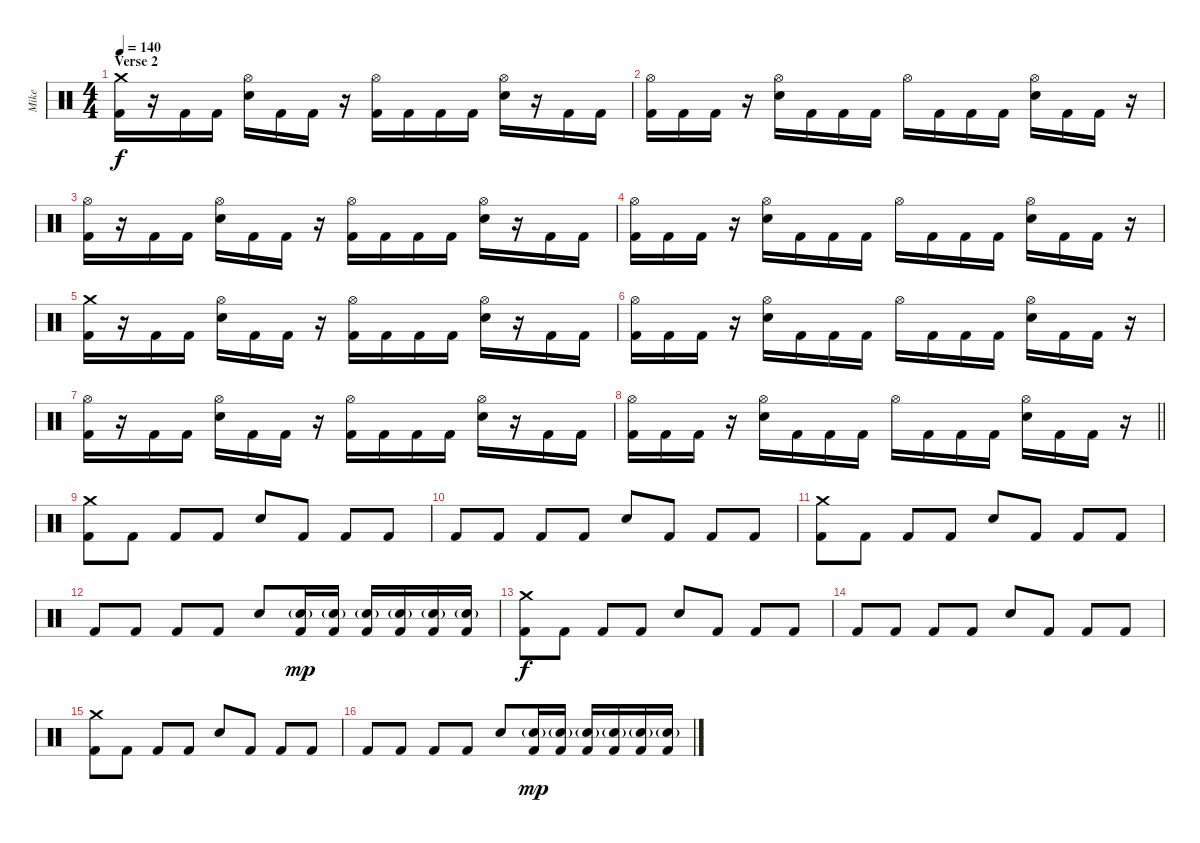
\track ("Mike" "Mike") {instrument percussion}
\staff {score}
\articulation defaults
\ts (4 4)
\section ("" "Verse 2")
\tempo 140
\clef neutral
\ks c
("Crash medium (hit)" "Kick (hit) 2").16{dy f} r.16 "Kick (hit) 2".16 "Kick (hit) 2".16 ("Hi-Hat (open)" "Electric Snare (hit)").16 "Kick (hit) 2".16 "Kick (hit) 2".16 r.16 ("Hi-Hat (open)" "Kick (hit) 2").16 "Kick (hit) 2".16 "Kick (hit) 2".16 "Kick (hit) 2".16 ("Hi-Hat (open)" "Electric Snare (hit)").16 r.16 "Kick (hit) 2".16 "Kick (hit) 2".16 |
("Hi-Hat (open)" "Kick (hit) 2").16 "Kick (hit) 2".16 "Kick (hit) 2".16 r.16 ("Hi-Hat (open)" "Electric Snare (hit)").16 "Kick (hit) 2".16 "Kick (hit) 2".16 "Kick (hit) 2".16 "Hi-Hat (open)".16 "Kick (hit) 2".16 "Kick (hit) 2".16 "Kick (hit) 2".16 ("Hi-Hat (open)" "Electric Snare (hit)").16 "Kick (hit) 2".16 "Kick (hit) 2".16 r.16 |
("Hi-Hat (open)" "Kick (hit) 2").16 r.16 "Kick (hit) 2".16 "Kick (hit) 2".16 ("Hi-Hat (open)" "Electric Snare (hit)").16 "Kick (hit) 2".16 "Kick (hit) 2".16 r.16 ("Hi-Hat (open)" "Kick (hit) 2").16 "Kick (hit) 2".16 "Kick (hit) 2".16 "Kick (hit) 2".16 ("Hi-Hat (open)" "Electric Snare (hit)").16 r.16 "Kick (hit) 2".16 "Kick (hit) 2".16 |
("Hi-Hat (open)" "Kick (hit) 2").16 "Kick (hit) 2".16 "Kick (hit) 2".16 r.16 ("Hi-Hat (open)" "Electric Snare (hit)").16 "Kick (hit) 2".16 "Kick (hit) 2".16 "Kick (hit) 2".16 "Hi-Hat (open)".16 "Kick (hit) 2".16 "Kick (hit) 2".16 "Kick (hit) 2".16 ("Hi-Hat (open)" "Electric Snare (hit)").16 "Kick (hit) 2".16 "Kick (hit) 2".16 r.16 |
("Crash medium (hit)" "Kick (hit) 2").16 r.16 "Kick (hit) 2".16 "Kick (hit) 2".16 ("Hi-Hat (open)" "Electric Snare (hit)").16 "Kick (hit) 2".16 "Kick (hit) 2".16 r.16 ("Hi-Hat (open)" "Kick (hit) 2").16 "Kick (hit) 2".16 "Kick (hit) 2".16 "Kick (hit) 2".16 ("Hi-Hat (open)" "Electric Snare (hit)").16 r.16 "Kick (hit) 2".16 "Kick (hit) 2".16 |
("Hi-Hat (open)" "Kick (hit) 2").16 "Kick (hit) 2".16 "Kick (hit) 2".16 r.16 ("Hi-Hat (open)" "Electric Snare (hit)").16 "Kick (hit) 2".16 "Kick (hit) 2".16 "Kick (hit) 2".16 "Hi-Hat (open)".16 "Kick (hit) 2".16 "Kick (hit) 2".16 "Kick (hit) 2".16 ("Hi-Hat (open)" "Electric Snare (hit)").16 "Kick (hit) 2".16 "Kick (hit) 2".16 r.16 |
("Hi-Hat (open)" "Kick (hit) 2").16 r.16 "Kick (hit) 2".16 "Kick (hit) 2".16 ("Hi-Hat (open)" "Electric Snare (hit)").16 "Kick (hit) 2".16 "Kick (hit) 2".16 r.16 ("Hi-Hat (open)" "Kick (hit) 2").16 "Kick (hit) 2".16 "Kick (hit) 2".16 "Kick (hit) 2".16 ("Hi-Hat (open)" "Electric Snare (hit)").16 r.16 "Kick (hit) 2".16 "Kick (hit) 2".16 |
\barLineRight lightlight
("Hi-Hat (open)" "Kick (hit) 2").16 "Kick (hit) 2".16 "Kick (hit) 2".16 r.16 ("Hi-Hat (open)" "Electric Snare (hit)").16 "Kick (hit) 2".16 "Kick (hit) 2".16 "Kick (hit) 2".16 "Hi-Hat (open)".16 "Kick (hit) 2".16 "Kick (hit) 2".16 "Kick (hit) 2".16 ("Hi-Hat (open)" "Electric Snare (hit)").16 "Kick (hit) 2".16 "Kick (hit) 2".16 r.16 |
("Crash medium (hit)" "Kick (hit) 2").8 "Kick (hit) 2".8 "Kick (hit) 2".8 "Kick (hit) 2".8 "Electric Snare (hit)".8 "Kick (hit) 2".8 "Kick (hit) 2".8 "Kick (hit) 2".8 |
"Kick (hit) 2".8 "Kick (hit) 2".8 "Kick (hit) 2".8 "Kick (hit) 2".8 "Electric Snare (hit)".8 "Kick (hit) 2".8 "Kick (hit) 2".8 "Kick (hit) 2".8 |
("Crash medium (hit)" "Kick (hit) 2").8 "Kick (hit) 2".8 "Kick (hit) 2".8 "Kick (hit) 2".8 "Electric Snare (hit)".8 "Kick (hit) 2".8 "Kick (hit) 2".8 "Kick (hit) 2".8 |
"Kick (hit) 2".8 "Kick (hit) 2".8 "Kick (hit) 2".8 "Kick (hit) 2".8 "Electric Snare (hit)".8 ("Electric Snare (hit)"{g} "Kick (hit) 2").16{dy mp} ("Electric Snare (hit)"{g} "Kick (hit) 2").16 ("Electric Snare (hit)"{g} "Kick (hit) 2").16 ("Electric Snare (hit)"{g} "Kick (hit) 2").16 ("Electric Snare (hit)"{g} "Kick (hit) 2").16 ("Electric Snare (hit)"{g} "Kick (hit) 2").16 |
("Crash medium (hit)" "Kick (hit) 2").8{dy f} "Kick (hit) 2".8 "Kick (hit) 2".8 "Kick (hit) 2".8 "Electric Snare (hit)".8 "Kick (hit) 2".8 "Kick (hit) 2".8 "Kick (hit) 2".8 |
"Kick (hit) 2".8 "Kick (hit) 2".8 "Kick (hit) 2".8 "Kick (hit) 2".8 "Electric Snare (hit)".8 "Kick (hit) 2".8 "Kick (hit) 2".8 "Kick (hit) 2".8 |
("Crash medium (hit)" "Kick (hit) 2").8 "Kick (hit) 2".8 "Kick (hit) 2".8 "Kick (hit) 2".8 "Electric Snare (hit)".8 "Kick (hit) 2".8 "Kick (hit) 2".8 "Kick (hit) 2".8 |
"Kick (hit) 2".8 "Kick (hit) 2".8 "Kick (hit) 2".8 "Kick (hit) 2".8 "Electric Snare (hit)".8 ("Electric Snare (hit)"{g} "Kick (hit) 2").16{dy mp} ("Electric Snare (hit)"{g} "Kick (hit) 2").16 ("Electric Snare (hit)"{g} "Kick (hit) 2").16 ("Electric Snare (hit)"{g} "Kick (hit) 2").16 ("Electric Snare (hit)"{g} "Kick (hit) 2").16 ("Electric Snare (hit)"{g} "Kick (hit) 2").16
